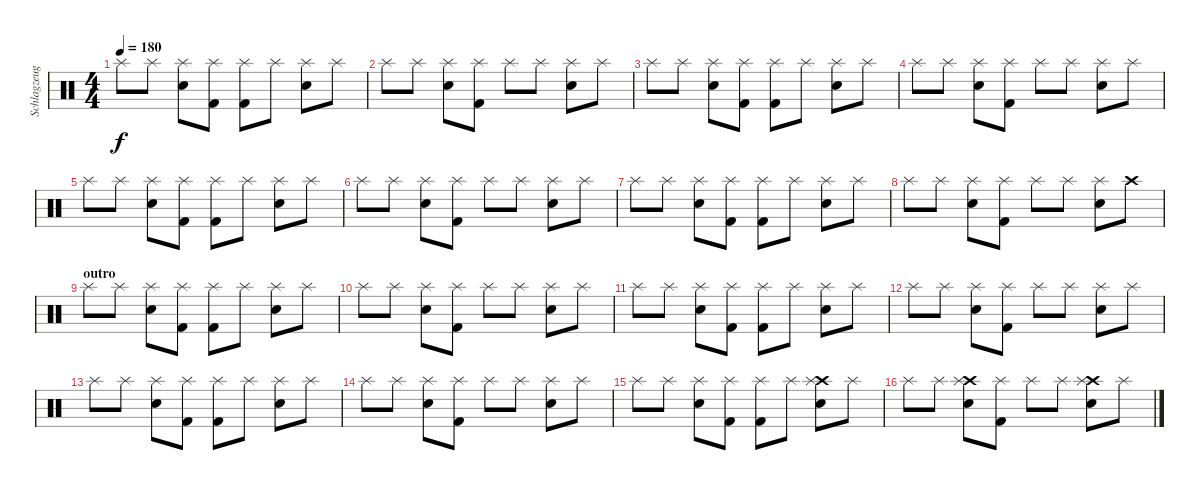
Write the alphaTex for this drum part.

\track ("Schlagzeug" "Schlagzeug") {instrument percussion}
\staff {score}
\articulation defaults
\ts (4 4)
\tempo 180
\clef neutral
\ks c "Splash (hit)".8{dy f} "Splash (hit)".8
("Splash (hit)" "Electric Snare (hit)").8 ("Splash (hit)" "Kick (hit) 2").8 ("Splash (hit)" "Kick (hit) 2").8 "Splash (hit)".8 ("Splash (hit)" "Electric Snare (hit)").8 "Splash (hit)".8 |
"Splash (hit)".8 "Splash (hit)".8 ("Splash (hit)" "Electric Snare (hit)").8 ("Splash (hit)" "Kick (hit) 2").8 "Splash (hit)".8 "Splash (hit)".8 ("Splash (hit)" "Electric Snare (hit)").8 "Splash (hit)".8 |
"Splash (hit)".8 "Splash (hit)".8 ("Splash (hit)" "Electric Snare (hit)").8 ("Splash (hit)" "Kick (hit) 2").8 ("Splash (hit)" "Kick (hit) 2").8 "Splash (hit)".8 ("Splash (hit)" "Electric Snare (hit)").8 "Splash (hit)".8 |
"Splash (hit)".8 "Splash (hit)".8 ("Splash (hit)" "Electric Snare (hit)").8 ("Splash (hit)" "Kick (hit) 2").8 "Splash (hit)".8 "Splash (hit)".8 ("Splash (hit)" "Electric Snare (hit)").8 "Splash (hit)".8 |
"Splash (hit)".8 "Splash (hit)".8 ("Splash (hit)" "Electric Snare (hit)").8 ("Splash (hit)" "Kick (hit) 2").8 ("Splash (hit)" "Kick (hit) 2").8 "Splash (hit)".8 ("Splash (hit)" "Electric Snare (hit)").8 "Splash (hit)".8 |
"Splash (hit)".8 "Splash (hit)".8 ("Splash (hit)" "Electric Snare (hit)").8 ("Splash (hit)" "Kick (hit) 2").8 "Splash (hit)".8 "Splash (hit)".8 ("Splash (hit)" "Electric Snare (hit)").8 "Splash (hit)".8 |
"Splash (hit)".8 "Splash (hit)".8 ("Splash (hit)" "Electric Snare (hit)").8 ("Splash (hit)" "Kick (hit) 2").8 ("Splash (hit)" "Kick (hit) 2").8 "Splash (hit)".8 ("Splash (hit)" "Electric Snare (hit)").8 "Splash (hit)".8 |
"Splash (hit)".8 "Splash (hit)".8 ("Splash (hit)" "Electric Snare (hit)").8 ("Splash (hit)" "Kick (hit) 2").8 "Splash (hit)".8 "Splash (hit)".8 ("Splash (hit)" "Electric Snare (hit)").8 "Crash high (hit)".8 |
\section ("" "outro")
"Splash (hit)".8 "Splash (hit)".8 ("Splash (hit)" "Electric Snare (hit)").8 ("Splash (hit)" "Kick (hit) 2").8 ("Splash (hit)" "Kick (hit) 2").8 "Splash (hit)".8 ("Splash (hit)" "Electric Snare (hit)").8 "Splash (hit)".8 |
"Splash (hit)".8 "Splash (hit)".8 ("Splash (hit)" "Electric Snare (hit)").8 ("Splash (hit)" "Kick (hit) 2").8 "Splash (hit)".8 "Splash (hit)".8 ("Splash (hit)" "Electric Snare (hit)").8 "Splash (hit)".8 |
"Splash (hit)".8 "Splash (hit)".8 ("Splash (hit)" "Electric Snare (hit)").8 ("Splash (hit)" "Kick (hit) 2").8 ("Splash (hit)" "Kick (hit) 2").8 "Splash (hit)".8 ("Splash (hit)" "Electric Snare (hit)").8 "Splash (hit)".8 |
"Splash (hit)".8 "Splash (hit)".8 ("Splash (hit)" "Electric Snare (hit)").8 ("Splash (hit)" "Kick (hit) 2").8 "Splash (hit)".8 "Splash (hit)".8 ("Splash (hit)" "Electric Snare (hit)").8 "Splash (hit)".8 |
"Splash (hit)".8 "Splash (hit)".8 ("Splash (hit)" "Electric Snare (hit)").8 ("Splash (hit)" "Kick (hit) 2").8 ("Splash (hit)" "Kick (hit) 2").8 "Splash (hit)".8 ("Splash (hit)" "Electric Snare (hit)").8 "Splash (hit)".8 |
"Splash (hit)".8 "Splash (hit)".8 ("Splash (hit)" "Electric Snare (hit)").8 ("Splash (hit)" "Kick (hit) 2").8 "Splash (hit)".8 "Splash (hit)".8 ("Splash (hit)" "Electric Snare (hit)").8 "Splash (hit)".8 |
"Splash (hit)".8 "Splash (hit)".8 ("Splash (hit)" "Electric Snare (hit)").8 ("Splash (hit)" "Kick (hit) 2").8 ("Splash (hit)" "Kick (hit) 2").8 "Splash (hit)".8 ("Crash high (hit)" "Splash (hit)" "Electric Snare (hit)").8 "Splash (hit)".8 |
"Splash (hit)".8 "Splash (hit)".8 ("Crash high (hit)" "Splash (hit)" "Electric Snare (hit)").8 ("Splash (hit)" "Kick (hit) 2").8 "Splash (hit)".8 "Splash (hit)".8 ("Crash high (hit)" "Splash (hit)" "Electric Snare (hit)").8 "Splash (hit)".8
